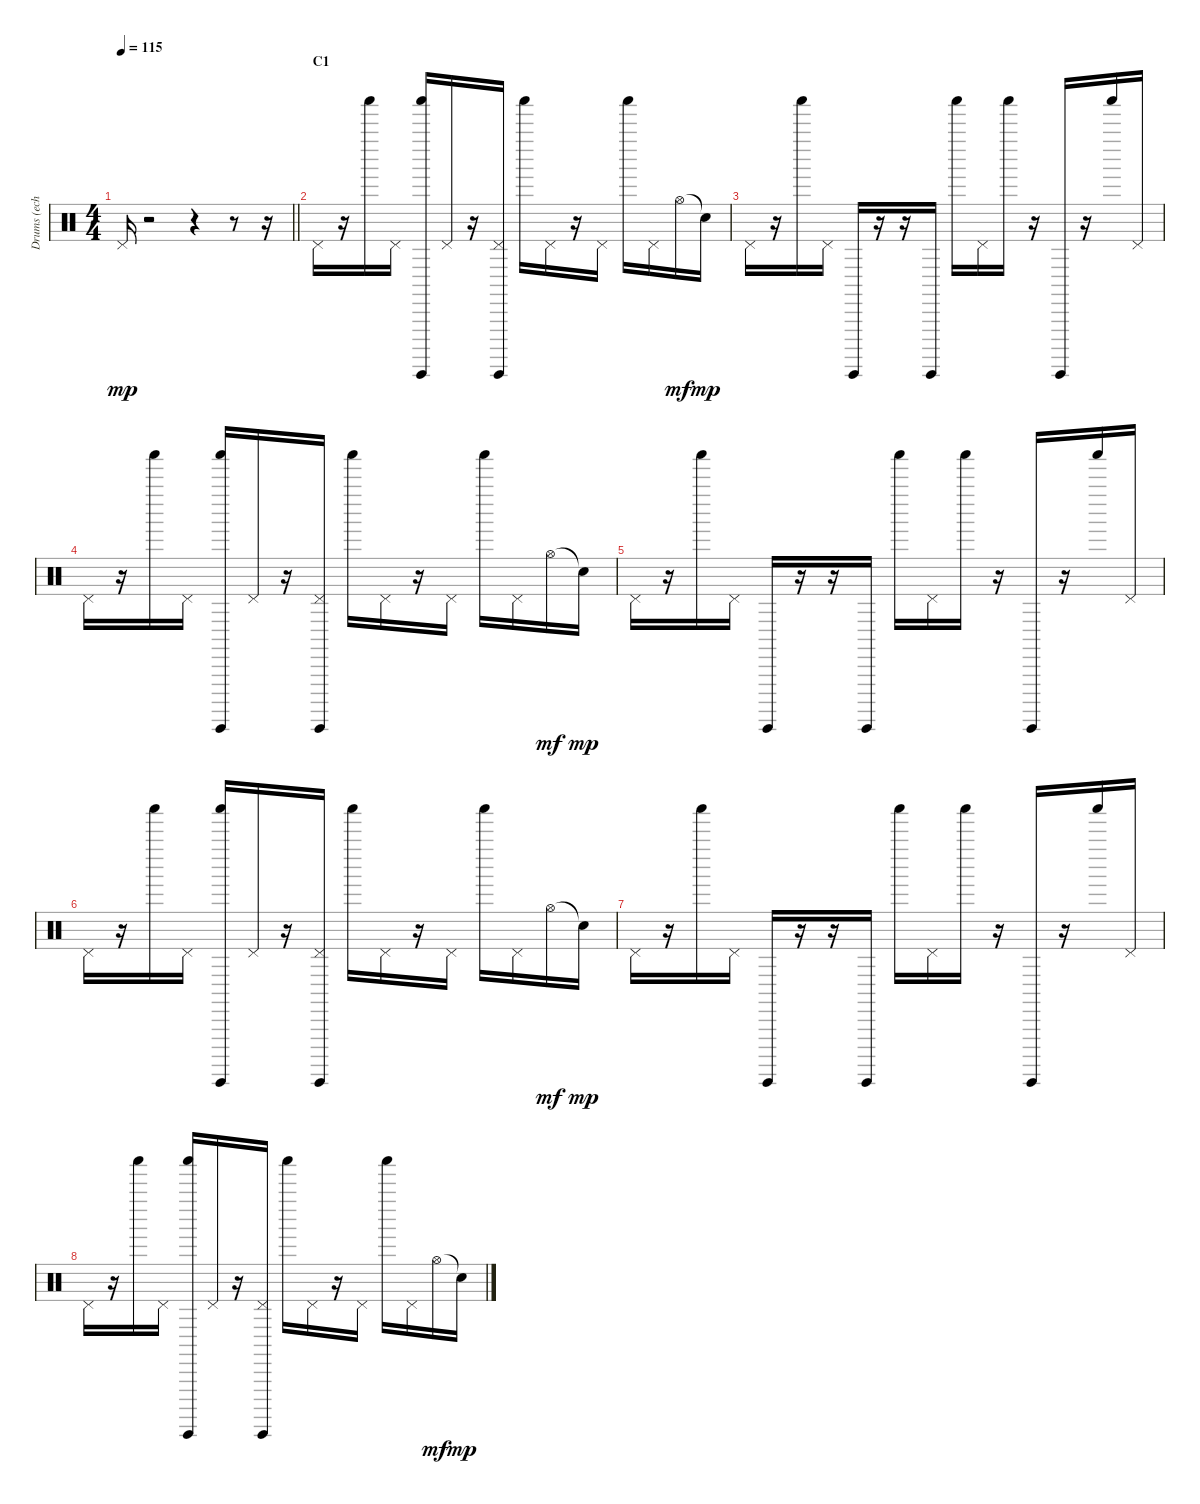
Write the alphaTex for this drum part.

\track ("Drums (echo)" "Drums (ech") {instrument percussion}
\staff {score}
\articulation defaults
\ts (4 4)
\tempo 115
\clef neutral
\barLineRight lightlight
\ks c "Pedal Hi-Hat (hit)".16{dy mp balance 6}
r.2 r.4 r.8 r.16 |
\section ("" "C1")
"Pedal Hi-Hat (hit)".16 r.16 "Shaker (hit)".16 "Pedal Hi-Hat (hit)".16 ("Shaker (hit)" "Guiro (hit)").16 "Pedal Hi-Hat (hit)".16 r.16 ("Pedal Hi-Hat (hit)" "Guiro (hit)").16 "Shaker (hit)".16 "Pedal Hi-Hat (hit)".16 r.16 "Pedal Hi-Hat (hit)".16 "Shaker (hit)".16 "Pedal Hi-Hat (hit)".16 "Hi-Hat (open)".16{dy mf balance 11} "Snare (hit)"{t}.16{dy mp} |
"Pedal Hi-Hat (hit)".16{balance 6} r.16 "Shaker (hit)".16 "Pedal Hi-Hat (hit)".16 "Guiro (hit)".16 r.16 r.16 "Guiro (hit)".16 "Shaker (hit)".16 "Pedal Hi-Hat (hit)".16 "Shaker (hit)".16 r.16 "Guiro (hit)".16 r.16 "Shaker (hit)".16 "Pedal Hi-Hat (hit)".16 |
"Pedal Hi-Hat (hit)".16 r.16 "Shaker (hit)".16 "Pedal Hi-Hat (hit)".16 ("Shaker (hit)" "Guiro (hit)").16 "Pedal Hi-Hat (hit)".16 r.16 ("Pedal Hi-Hat (hit)" "Guiro (hit)").16 "Shaker (hit)".16 "Pedal Hi-Hat (hit)".16 r.16 "Pedal Hi-Hat (hit)".16 "Shaker (hit)".16 "Pedal Hi-Hat (hit)".16 "Hi-Hat (open)".16{dy mf balance 11} "Snare (hit)"{t}.16{dy mp} |
"Pedal Hi-Hat (hit)".16{balance 6} r.16 "Shaker (hit)".16 "Pedal Hi-Hat (hit)".16 "Guiro (hit)".16 r.16 r.16 "Guiro (hit)".16 "Shaker (hit)".16 "Pedal Hi-Hat (hit)".16 "Shaker (hit)".16 r.16 "Guiro (hit)".16 r.16 "Shaker (hit)".16 "Pedal Hi-Hat (hit)".16 |
"Pedal Hi-Hat (hit)".16 r.16 "Shaker (hit)".16 "Pedal Hi-Hat (hit)".16 ("Shaker (hit)" "Guiro (hit)").16 "Pedal Hi-Hat (hit)".16 r.16 ("Pedal Hi-Hat (hit)" "Guiro (hit)").16 "Shaker (hit)".16 "Pedal Hi-Hat (hit)".16 r.16 "Pedal Hi-Hat (hit)".16 "Shaker (hit)".16 "Pedal Hi-Hat (hit)".16 "Hi-Hat (open)".16{dy mf balance 11} "Snare (hit)"{t}.16{dy mp} |
"Pedal Hi-Hat (hit)".16{balance 6} r.16 "Shaker (hit)".16 "Pedal Hi-Hat (hit)".16 "Guiro (hit)".16 r.16 r.16 "Guiro (hit)".16 "Shaker (hit)".16 "Pedal Hi-Hat (hit)".16 "Shaker (hit)".16 r.16 "Guiro (hit)".16 r.16 "Shaker (hit)".16 "Pedal Hi-Hat (hit)".16 |
"Pedal Hi-Hat (hit)".16 r.16 "Shaker (hit)".16 "Pedal Hi-Hat (hit)".16 ("Shaker (hit)" "Guiro (hit)").16 "Pedal Hi-Hat (hit)".16 r.16 ("Pedal Hi-Hat (hit)" "Guiro (hit)").16 "Shaker (hit)".16 "Pedal Hi-Hat (hit)".16 r.16 "Pedal Hi-Hat (hit)".16 "Shaker (hit)".16 "Pedal Hi-Hat (hit)".16 "Hi-Hat (open)".16{dy mf balance 11} "Snare (hit)"{t}.16{dy mp}
